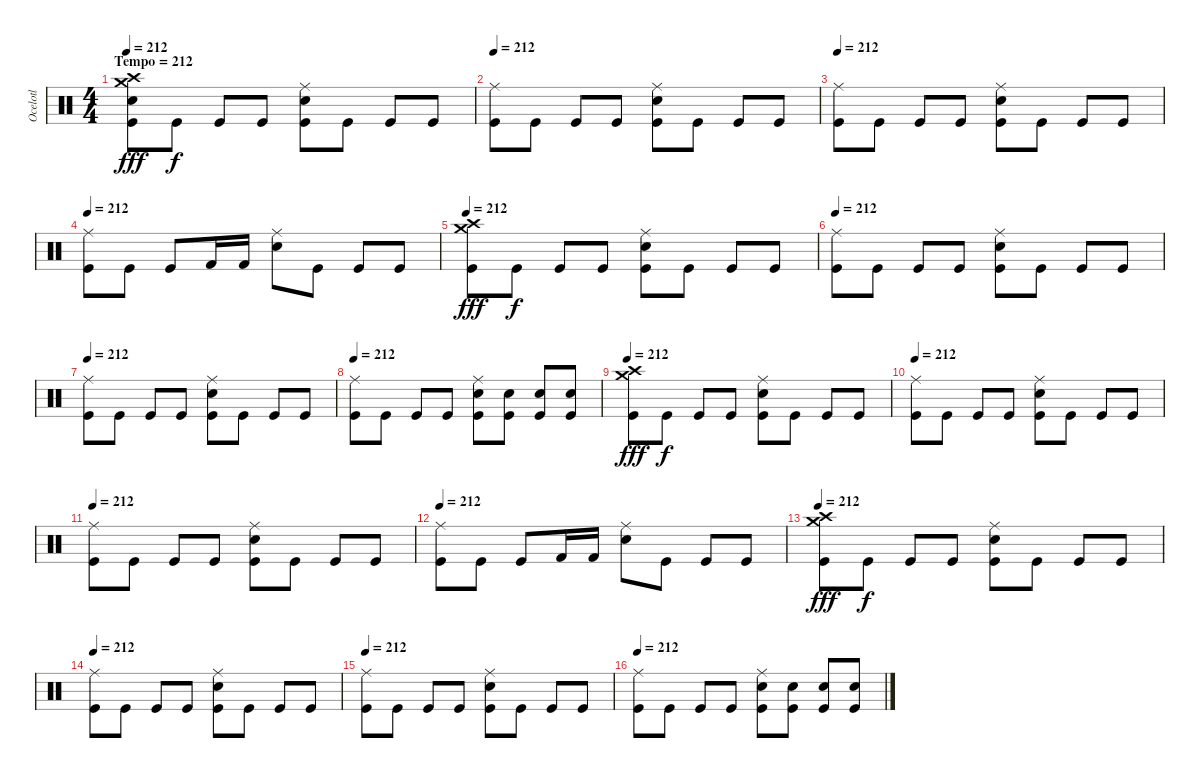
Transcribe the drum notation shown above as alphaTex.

\track ("Ocelotl" "Ocelotl") {instrument percussion}
\staff {score}
\articulation defaults
\ts (4 4)
\section ("" "Tempo = 212")
\tempo 212
\clef neutral
\ks c
("Crash medium (hit)" "Kick (hit)" "Snare (hit) 2" "Crash high (hit)").8{dy fff} "Kick (hit)".8{dy f} "Kick (hit)".8 "Kick (hit)".8 ("Ride (middle)" "Kick (hit)" "Snare (hit) 2").8 "Kick (hit)".8 "Kick (hit)".8 "Kick (hit)".8 |
\tempo 212
("Ride (middle)" "Kick (hit)").8 "Kick (hit)".8 "Kick (hit)".8 "Kick (hit)".8 ("Ride (middle)" "Kick (hit)" "Snare (hit) 2").8 "Kick (hit)".8 "Kick (hit)".8 "Kick (hit)".8 |
\tempo 212
("Ride (middle)" "Kick (hit)").8 "Kick (hit)".8 "Kick (hit)".8 "Kick (hit)".8 ("Ride (middle)" "Kick (hit)" "Snare (hit) 2").8 "Kick (hit)".8 "Kick (hit)".8 "Kick (hit)".8 |
\tempo 212
("Ride (middle)" "Kick (hit)").8 "Kick (hit)".8 "Kick (hit)".8 "Kick (hit) 2".16 "Kick (hit) 2".16 ("Ride (middle)" "Snare (hit) 2").8 "Kick (hit)".8 "Kick (hit)".8 "Kick (hit)".8 |
\tempo 212
("Crash medium (hit)" "Kick (hit)" "Crash high (hit)").8{dy fff} "Kick (hit)".8{dy f} "Kick (hit)".8 "Kick (hit)".8 ("Ride (middle)" "Kick (hit)" "Snare (hit) 2").8 "Kick (hit)".8 "Kick (hit)".8 "Kick (hit)".8 |
\tempo 212
("Ride (middle)" "Kick (hit)").8 "Kick (hit)".8 "Kick (hit)".8 "Kick (hit)".8 ("Ride (middle)" "Kick (hit)" "Snare (hit) 2").8 "Kick (hit)".8 "Kick (hit)".8 "Kick (hit)".8 |
\tempo 212
("Ride (middle)" "Kick (hit)").8 "Kick (hit)".8 "Kick (hit)".8 "Kick (hit)".8 ("Ride (middle)" "Kick (hit)" "Snare (hit) 2").8 "Kick (hit)".8 "Kick (hit)".8 "Kick (hit)".8 |
\tempo 212
("Ride (middle)" "Kick (hit)").8 "Kick (hit)".8 "Kick (hit)".8 "Kick (hit)".8 ("Ride (middle)" "Kick (hit)" "Snare (hit) 2").8 ("Kick (hit)" "Snare (hit) 2").8 ("Kick (hit)" "Snare (hit) 2").8 ("Kick (hit)" "Snare (hit) 2").8 |
\tempo 212
("Crash medium (hit)" "Kick (hit)" "Crash high (hit)").8{dy fff} "Kick (hit)".8{dy f} "Kick (hit)".8 "Kick (hit)".8 ("Ride (middle)" "Kick (hit)" "Snare (hit) 2").8 "Kick (hit)".8 "Kick (hit)".8 "Kick (hit)".8 |
\tempo 212
("Ride (middle)" "Kick (hit)").8 "Kick (hit)".8 "Kick (hit)".8 "Kick (hit)".8 ("Ride (middle)" "Kick (hit)" "Snare (hit) 2").8 "Kick (hit)".8 "Kick (hit)".8 "Kick (hit)".8 |
\tempo 212
("Ride (middle)" "Kick (hit)").8 "Kick (hit)".8 "Kick (hit)".8 "Kick (hit)".8 ("Ride (middle)" "Kick (hit)" "Snare (hit) 2").8 "Kick (hit)".8 "Kick (hit)".8 "Kick (hit)".8 |
\tempo 212
("Ride (middle)" "Kick (hit)").8 "Kick (hit)".8 "Kick (hit)".8 "Kick (hit) 2".16 "Kick (hit) 2".16 ("Ride (middle)" "Snare (hit) 2").8 "Kick (hit)".8 "Kick (hit)".8 "Kick (hit)".8 |
\tempo 212
("Crash medium (hit)" "Kick (hit)" "Crash high (hit)").8{dy fff} "Kick (hit)".8{dy f} "Kick (hit)".8 "Kick (hit)".8 ("Ride (middle)" "Kick (hit)" "Snare (hit) 2").8 "Kick (hit)".8 "Kick (hit)".8 "Kick (hit)".8 |
\tempo 212
("Ride (middle)" "Kick (hit)").8 "Kick (hit)".8 "Kick (hit)".8 "Kick (hit)".8 ("Ride (middle)" "Kick (hit)" "Snare (hit) 2").8 "Kick (hit)".8 "Kick (hit)".8 "Kick (hit)".8 |
\tempo 212
("Ride (middle)" "Kick (hit)").8 "Kick (hit)".8 "Kick (hit)".8 "Kick (hit)".8 ("Ride (middle)" "Kick (hit)" "Snare (hit) 2").8 "Kick (hit)".8 "Kick (hit)".8 "Kick (hit)".8 |
\tempo 212
("Ride (middle)" "Kick (hit)").8 "Kick (hit)".8 "Kick (hit)".8 "Kick (hit)".8 ("Ride (middle)" "Kick (hit)" "Snare (hit) 2").8 ("Kick (hit)" "Snare (hit) 2").8 ("Kick (hit)" "Snare (hit) 2").8 ("Kick (hit)" "Snare (hit) 2").8
